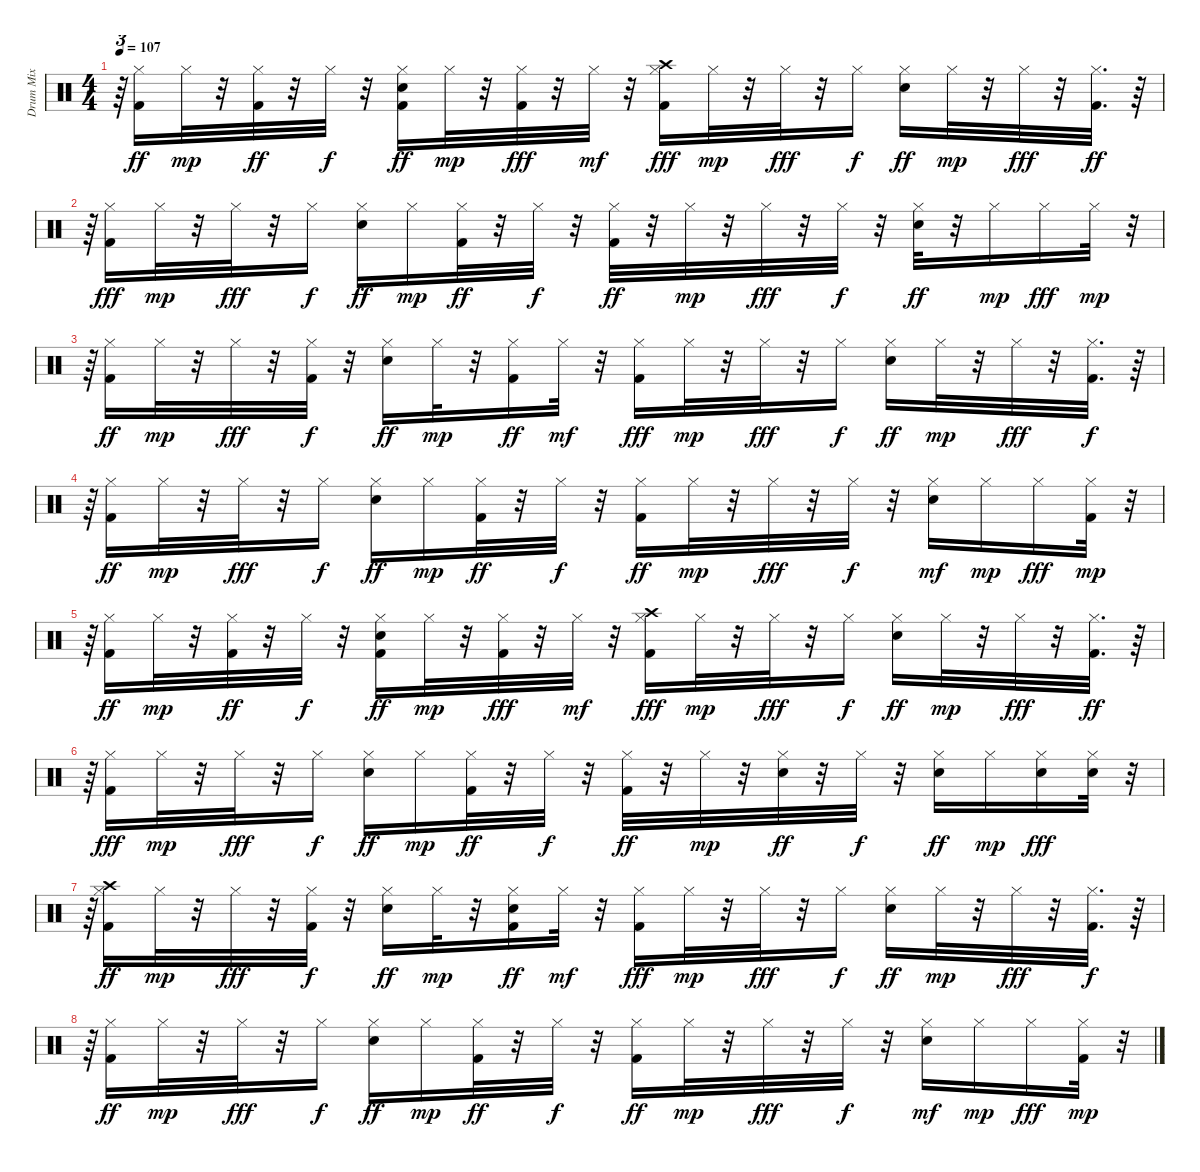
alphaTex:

\track ("Drum Mix" "Drum Mix") {instrument percussion}
\staff {score}
\articulation defaults
\ts (4 4)
\tempo 107
\clef neutral
\ks c
r.64{tu (3 2) dy mp} ("Hi-Hat (closed)" "Kick (hit) 2").16{dy ff} "Hi-Hat (closed)".32{dy mp} r.32 ("Hi-Hat (closed)" "Kick (hit) 2").32{dy ff} r.32 "Hi-Hat (closed)".32{dy f} r.32 ("Hi-Hat (closed)" "Snare (hit) 2" "Kick (hit) 2").16{dy ff} "Hi-Hat (closed)".32{dy mp} r.32 ("Hi-Hat (closed)" "Kick (hit) 2").32{dy fff} r.32 "Hi-Hat (closed)".32{dy mf} r.32 ("Hi-Hat (closed)" "Kick (hit) 2" "Crash high (hit)").16{dy fff} "Hi-Hat (closed)".32{dy mp} r.32 "Hi-Hat (closed)".32{dy fff} r.32 "Hi-Hat (closed)".16{dy f} ("Hi-Hat (closed)" "Snare (hit) 2").16{dy ff} "Hi-Hat (closed)".32{dy mp} r.32 "Hi-Hat (closed)".32{dy fff} r.32 ("Hi-Hat (closed)" "Kick (hit) 2").32{d dy ff} r.64 |
r.64{tu (3 2)} ("Hi-Hat (closed)" "Kick (hit) 2").16{dy fff} "Hi-Hat (closed)".32{dy mp} r.32 "Hi-Hat (closed)".32{dy fff} r.32 "Hi-Hat (closed)".16{dy f} ("Hi-Hat (closed)" "Snare (hit) 2").16{dy ff} "Hi-Hat (closed)".16{dy mp} ("Hi-Hat (closed)" "Kick (hit) 2").32{dy ff} r.32 "Hi-Hat (closed)".32{dy f} r.32 ("Hi-Hat (closed)" "Kick (hit) 2").32{dy ff} r.32 "Hi-Hat (closed)".32{dy mp} r.32 "Hi-Hat (closed)".32{dy fff} r.32 "Hi-Hat (closed)".32{dy f} r.32 ("Hi-Hat (closed)" "Snare (hit) 2").32{dy ff} r.32 "Hi-Hat (closed)".16{dy mp} "Hi-Hat (closed)".16{dy fff} "Hi-Hat (closed)".32{dy mp} r.32{tu (3 2)} |
r.64{tu (3 2)} ("Hi-Hat (closed)" "Kick (hit) 2").16{dy ff} "Hi-Hat (closed)".32{dy mp} r.32 "Hi-Hat (closed)".32{dy fff} r.32 ("Hi-Hat (closed)" "Kick (hit) 2").32{dy f} r.32 ("Hi-Hat (closed)" "Snare (hit) 2").16{dy ff} "Hi-Hat (closed)".32{dy mp} r.32 ("Hi-Hat (closed)" "Kick (hit) 2").16{dy ff} "Hi-Hat (closed)".32{dy mf} r.32 ("Hi-Hat (closed)" "Kick (hit) 2").16{dy fff} "Hi-Hat (closed)".32{dy mp} r.32 "Hi-Hat (closed)".32{dy fff} r.32 "Hi-Hat (closed)".16{dy f} ("Hi-Hat (closed)" "Snare (hit) 2").16{dy ff} "Hi-Hat (closed)".32{dy mp} r.32 "Hi-Hat (closed)".32{dy fff} r.32 ("Hi-Hat (closed)" "Kick (hit) 2").32{d dy f} r.64 |
r.64{tu (3 2)} ("Hi-Hat (closed)" "Kick (hit) 2").16{dy ff} "Hi-Hat (closed)".32{dy mp} r.32 "Hi-Hat (closed)".32{dy fff} r.32 "Hi-Hat (closed)".16{dy f} ("Hi-Hat (closed)" "Snare (hit) 2").16{dy ff} "Hi-Hat (closed)".16{dy mp} ("Hi-Hat (closed)" "Kick (hit) 2").32{dy ff} r.32 "Hi-Hat (closed)".32{dy f} r.32 ("Hi-Hat (closed)" "Kick (hit) 2").16{dy ff} "Hi-Hat (closed)".32{dy mp} r.32 "Hi-Hat (closed)".32{dy fff} r.32 "Hi-Hat (closed)".32{dy f} r.32 ("Hi-Hat (closed)" "Snare (hit) 2").16{dy mf} "Hi-Hat (closed)".16{dy mp} "Hi-Hat (closed)".16{dy fff} ("Hi-Hat (closed)" "Kick (hit) 2").32{dy mp} r.32{tu (3 2)} |
r.64{tu (3 2)} ("Hi-Hat (closed)" "Kick (hit) 2").16{dy ff} "Hi-Hat (closed)".32{dy mp} r.32 ("Hi-Hat (closed)" "Kick (hit) 2").32{dy ff} r.32 "Hi-Hat (closed)".32{dy f} r.32 ("Hi-Hat (closed)" "Snare (hit) 2" "Kick (hit) 2").16{dy ff} "Hi-Hat (closed)".32{dy mp} r.32 ("Hi-Hat (closed)" "Kick (hit) 2").32{dy fff} r.32 "Hi-Hat (closed)".32{dy mf} r.32 ("Hi-Hat (closed)" "Kick (hit) 2" "Crash high (hit)").16{dy fff} "Hi-Hat (closed)".32{dy mp} r.32 "Hi-Hat (closed)".32{dy fff} r.32 "Hi-Hat (closed)".16{dy f} ("Hi-Hat (closed)" "Snare (hit) 2").16{dy ff} "Hi-Hat (closed)".32{dy mp} r.32 "Hi-Hat (closed)".32{dy fff} r.32 ("Hi-Hat (closed)" "Kick (hit) 2").32{d dy ff} r.64 |
r.64{tu (3 2)} ("Hi-Hat (closed)" "Kick (hit) 2").16{dy fff} "Hi-Hat (closed)".32{dy mp} r.32 "Hi-Hat (closed)".32{dy fff} r.32 "Hi-Hat (closed)".16{dy f} ("Hi-Hat (closed)" "Snare (hit) 2").16{dy ff} "Hi-Hat (closed)".16{dy mp} ("Hi-Hat (closed)" "Kick (hit) 2").32{dy ff} r.32 "Hi-Hat (closed)".32{dy f} r.32 ("Hi-Hat (closed)" "Kick (hit) 2").32{dy ff} r.32 "Hi-Hat (closed)".32{dy mp} r.32 ("Hi-Hat (closed)" "Snare (hit) 2").32{dy ff} r.32 "Hi-Hat (closed)".32{dy f} r.32 ("Hi-Hat (closed)" "Snare (hit) 2").16{dy ff} "Hi-Hat (closed)".16{dy mp} ("Hi-Hat (closed)" "Snare (hit) 2").16{dy fff} ("Hi-Hat (closed)" "Snare (hit) 2").32 r.32{tu (3 2)} |
r.64{tu (3 2)} ("Hi-Hat (closed)" "Crash high (hit)" "Kick (hit) 2").16{dy ff} "Hi-Hat (closed)".32{dy mp} r.32 "Hi-Hat (closed)".32{dy fff} r.32 ("Hi-Hat (closed)" "Kick (hit) 2").32{dy f} r.32 ("Hi-Hat (closed)" "Snare (hit) 2").16{dy ff} "Hi-Hat (closed)".32{dy mp} r.32 ("Hi-Hat (closed)" "Snare (hit) 2" "Kick (hit) 2").16{dy ff} "Hi-Hat (closed)".32{dy mf} r.32 ("Hi-Hat (closed)" "Kick (hit) 2").16{dy fff} "Hi-Hat (closed)".32{dy mp} r.32 "Hi-Hat (closed)".32{dy fff} r.32 "Hi-Hat (closed)".16{dy f} ("Hi-Hat (closed)" "Snare (hit) 2").16{dy ff} "Hi-Hat (closed)".32{dy mp} r.32 "Hi-Hat (closed)".32{dy fff} r.32 ("Hi-Hat (closed)" "Kick (hit) 2").32{d dy f} r.64 |
r.64{tu (3 2)} ("Hi-Hat (closed)" "Kick (hit) 2").16{dy ff} "Hi-Hat (closed)".32{dy mp} r.32 "Hi-Hat (closed)".32{dy fff} r.32 "Hi-Hat (closed)".16{dy f} ("Hi-Hat (closed)" "Snare (hit) 2").16{dy ff} "Hi-Hat (closed)".16{dy mp} ("Hi-Hat (closed)" "Kick (hit) 2").32{dy ff} r.32 "Hi-Hat (closed)".32{dy f} r.32 ("Hi-Hat (closed)" "Kick (hit) 2").16{dy ff} "Hi-Hat (closed)".32{dy mp} r.32 "Hi-Hat (closed)".32{dy fff} r.32 "Hi-Hat (closed)".32{dy f} r.32 ("Hi-Hat (closed)" "Snare (hit) 2").16{dy mf} "Hi-Hat (closed)".16{dy mp} "Hi-Hat (closed)".16{dy fff} ("Hi-Hat (closed)" "Kick (hit) 2").32{dy mp} r.32{tu (3 2)}
